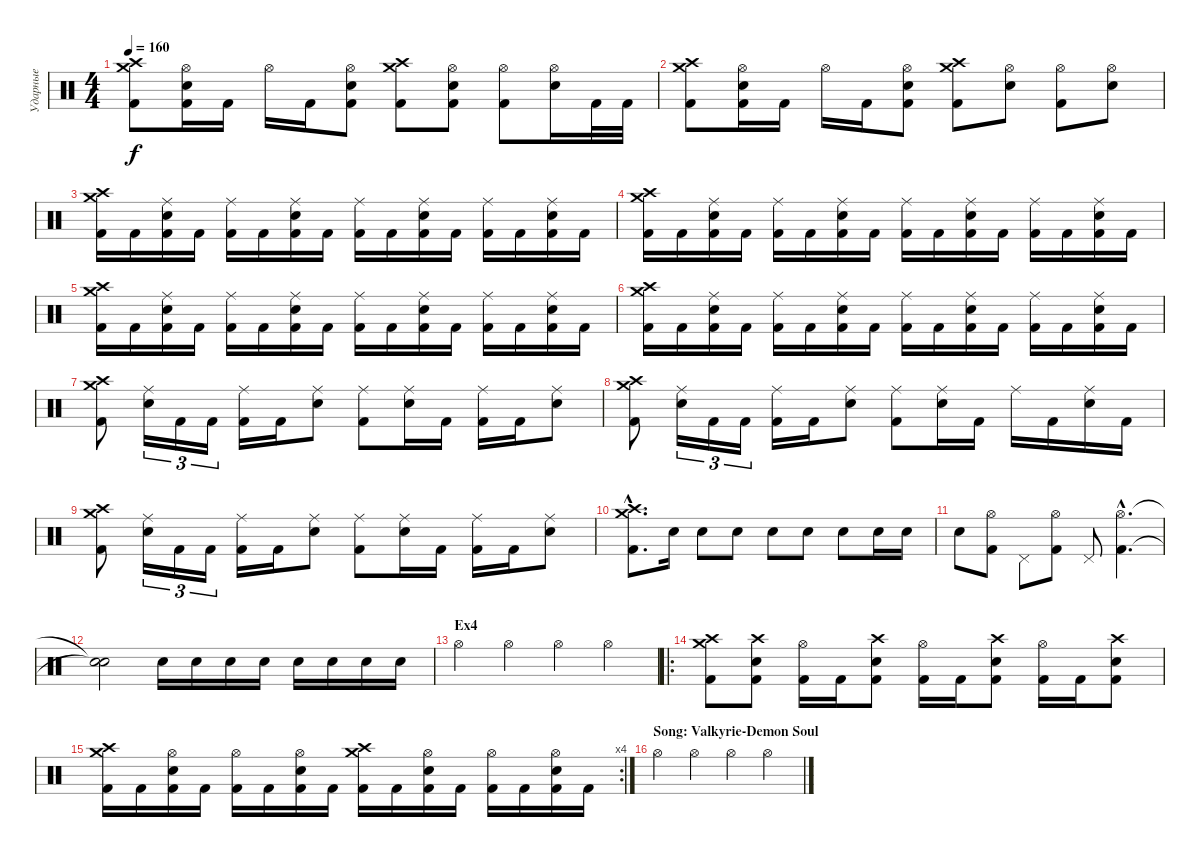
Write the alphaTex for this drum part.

\track ("Ударные" "Ударные") {instrument percussion}
\staff {score}
\articulation defaults
\ts (4 4)
\tempo 160
\clef neutral
\ks c
("Kick (hit) 2" "Crash high (hit)" "Crash medium (hit)").8{dy f} ("Kick (hit) 2" "Electric Snare (hit)" "Hi-Hat (open)").16 "Kick (hit) 2".16 "Hi-Hat (open)".16 "Kick (hit) 2".16 ("Kick (hit) 2" "Electric Snare (hit)" "Hi-Hat (open)").8 ("Kick (hit) 2" "Crash high (hit)" "Crash medium (hit)").8 ("Kick (hit) 2" "Electric Snare (hit)" "Hi-Hat (open)").8 ("Kick (hit) 2" "Hi-Hat (open)").8 ("Electric Snare (hit)" "Hi-Hat (open)").16 "Kick (hit) 2".32 "Kick (hit) 2".32 |
("Kick (hit) 2" "Crash high (hit)" "Crash medium (hit)").8 ("Kick (hit) 2" "Electric Snare (hit)" "Hi-Hat (open)").16 "Kick (hit) 2".16 "Hi-Hat (open)".16 "Kick (hit) 2".16 ("Kick (hit) 2" "Electric Snare (hit)" "Hi-Hat (open)").8 ("Kick (hit) 2" "Crash high (hit)" "Crash medium (hit)").8 ("Electric Snare (hit)" "Hi-Hat (open)").8 ("Kick (hit) 2" "Hi-Hat (open)").8 ("Electric Snare (hit)" "Hi-Hat (open)").8 |
("Kick (hit) 2" "Crash high (hit)" "Crash medium (hit)").16 "Kick (hit) 2".16 ("Kick (hit) 2" "Electric Snare (hit)" "Ride (middle)").16 "Kick (hit) 2".16 ("Kick (hit) 2" "Ride (middle)").16 "Kick (hit) 2".16 ("Kick (hit) 2" "Electric Snare (hit)" "Ride (middle)").16 "Kick (hit) 2".16 ("Kick (hit) 2" "Ride (middle)").16 "Kick (hit) 2".16 ("Kick (hit) 2" "Electric Snare (hit)" "Ride (middle)").16 "Kick (hit) 2".16 ("Kick (hit) 2" "Ride (middle)").16 "Kick (hit) 2".16 ("Kick (hit) 2" "Electric Snare (hit)" "Ride (middle)").16 "Kick (hit) 2".16 |
("Kick (hit) 2" "Crash high (hit)" "Crash medium (hit)").16 "Kick (hit) 2".16 ("Kick (hit) 2" "Electric Snare (hit)" "Ride (middle)").16 "Kick (hit) 2".16 ("Kick (hit) 2" "Ride (middle)").16 "Kick (hit) 2".16 ("Kick (hit) 2" "Electric Snare (hit)" "Ride (middle)").16 "Kick (hit) 2".16 ("Kick (hit) 2" "Ride (middle)").16 "Kick (hit) 2".16 ("Kick (hit) 2" "Electric Snare (hit)" "Ride (middle)").16 "Kick (hit) 2".16 ("Kick (hit) 2" "Ride (middle)").16 "Kick (hit) 2".16 ("Kick (hit) 2" "Electric Snare (hit)" "Ride (middle)").16 "Kick (hit) 2".16 |
("Kick (hit) 2" "Crash high (hit)" "Crash medium (hit)").16 "Kick (hit) 2".16 ("Kick (hit) 2" "Electric Snare (hit)" "Ride (middle)").16 "Kick (hit) 2".16 ("Kick (hit) 2" "Ride (middle)").16 "Kick (hit) 2".16 ("Kick (hit) 2" "Electric Snare (hit)" "Ride (middle)").16 "Kick (hit) 2".16 ("Kick (hit) 2" "Ride (middle)").16 "Kick (hit) 2".16 ("Kick (hit) 2" "Electric Snare (hit)" "Ride (middle)").16 "Kick (hit) 2".16 ("Kick (hit) 2" "Ride (middle)").16 "Kick (hit) 2".16 ("Kick (hit) 2" "Electric Snare (hit)" "Ride (middle)").16 "Kick (hit) 2".16 |
("Kick (hit) 2" "Crash high (hit)" "Crash medium (hit)").16 "Kick (hit) 2".16 ("Kick (hit) 2" "Electric Snare (hit)" "Ride (middle)").16 "Kick (hit) 2".16 ("Kick (hit) 2" "Ride (middle)").16 "Kick (hit) 2".16 ("Kick (hit) 2" "Electric Snare (hit)" "Ride (middle)").16 "Kick (hit) 2".16 ("Kick (hit) 2" "Ride (middle)").16 "Kick (hit) 2".16 ("Kick (hit) 2" "Electric Snare (hit)" "Ride (middle)").16 "Kick (hit) 2".16 ("Kick (hit) 2" "Ride (middle)").16 "Kick (hit) 2".16 ("Kick (hit) 2" "Electric Snare (hit)" "Ride (middle)").16 "Kick (hit) 2".16 |
("Kick (hit) 2" "Crash high (hit)" "Crash medium (hit)").8 ("Electric Snare (hit)" "Ride (middle)").16{tu (3 2)} "Kick (hit) 2".16{tu (3 2)} "Kick (hit) 2".16{tu (3 2)} ("Kick (hit) 2" "Ride (middle)").16 "Kick (hit) 2".16 ("Electric Snare (hit)" "Ride (middle)").8 ("Kick (hit) 2" "Ride (middle)").8 ("Electric Snare (hit)" "Ride (middle)").16 "Kick (hit) 2".16 ("Kick (hit) 2" "Ride (middle)").16 "Kick (hit) 2".16 ("Electric Snare (hit)" "Ride (middle)").8 |
("Kick (hit) 2" "Crash high (hit)" "Crash medium (hit)").8 ("Electric Snare (hit)" "Ride (middle)").16{tu (3 2)} "Kick (hit) 2".16{tu (3 2)} "Kick (hit) 2".16{tu (3 2)} ("Kick (hit) 2" "Ride (middle)").16 "Kick (hit) 2".16 ("Electric Snare (hit)" "Ride (middle)").8 ("Kick (hit) 2" "Ride (middle)").8 ("Electric Snare (hit)" "Ride (middle)").16 "Kick (hit) 2".16 "Ride (middle)".16 "Kick (hit) 2".16 ("Electric Snare (hit)" "Ride (middle)").16 "Kick (hit) 2".16 |
("Kick (hit) 2" "Crash high (hit)" "Crash medium (hit)").8 ("Electric Snare (hit)" "Ride (middle)").16{tu (3 2)} "Kick (hit) 2".16{tu (3 2)} "Kick (hit) 2".16{tu (3 2)} ("Kick (hit) 2" "Ride (middle)").16 "Kick (hit) 2".16 ("Electric Snare (hit)" "Ride (middle)").8 ("Kick (hit) 2" "Ride (middle)").8 ("Electric Snare (hit)" "Ride (middle)").16 "Kick (hit) 2".16 ("Kick (hit) 2" "Ride (middle)").16 "Kick (hit) 2".16 ("Electric Snare (hit)" "Ride (middle)").8 |
("Kick (hit) 2"{hac} "Crash high (hit)"{hac} "Crash medium (hit)"{hac}).8{d} "Electric Snare (hit)".16 "Electric Snare (hit)".8 "Electric Snare (hit)".8 "Electric Snare (hit)".8 "Electric Snare (hit)".8 "Electric Snare (hit)".8 "Electric Snare (hit)".16 "Electric Snare (hit)".16 |
"Electric Snare (hit)".8 ("Kick (hit) 2" "Hi-Hat (open)").8 "Pedal Hi-Hat (hit)".8 ("Kick (hit) 2" "Hi-Hat (open)").8 "Pedal Hi-Hat (hit)".8 ("Kick (hit) 2"{hac} "Hi-Hat (open)"{hac}).4{d} |
("Snare (hit)"{t} "Snare (hit)"{t}).2 "Electric Snare (hit)".16 "Electric Snare (hit)".16 "Electric Snare (hit)".16 "Electric Snare (hit)".16 "Electric Snare (hit)".16 "Electric Snare (hit)".16 "Electric Snare (hit)".16 "Electric Snare (hit)".16 |
\section ("" "Ex4")
"Hi-Hat (open)".4 "Hi-Hat (open)".4 "Hi-Hat (open)".4 "Hi-Hat (open)".4 |
\ro
("Kick (hit) 2" "Crash high (hit)" "Crash medium (hit)").8 ("Kick (hit) 2" "Electric Snare (hit)" "Crash high (hit)").8 ("Kick (hit) 2" "Hi-Hat (open)").16 "Kick (hit) 2".16 ("Kick (hit) 2" "Electric Snare (hit)" "Crash high (hit)").8 ("Kick (hit) 2" "Hi-Hat (open)").16 "Kick (hit) 2".16 ("Kick (hit) 2" "Electric Snare (hit)" "Crash high (hit)").8 ("Kick (hit) 2" "Hi-Hat (open)").16 "Kick (hit) 2".16 ("Kick (hit) 2" "Electric Snare (hit)" "Crash high (hit)").8 |
\rc 4
("Kick (hit) 2" "Crash high (hit)" "Crash medium (hit)").16 "Kick (hit) 2".16 ("Kick (hit) 2" "Electric Snare (hit)" "Hi-Hat (open)").16 "Kick (hit) 2".16 ("Kick (hit) 2" "Hi-Hat (open)").16 "Kick (hit) 2".16 ("Kick (hit) 2" "Electric Snare (hit)" "Hi-Hat (open)").16 "Kick (hit) 2".16 ("Kick (hit) 2" "Crash medium (hit)" "Crash high (hit)").16 "Kick (hit) 2".16 ("Kick (hit) 2" "Electric Snare (hit)" "Hi-Hat (open)").16 "Kick (hit) 2".16 ("Kick (hit) 2" "Hi-Hat (open)").16 "Kick (hit) 2".16 ("Kick (hit) 2" "Electric Snare (hit)" "Hi-Hat (open)").16 "Kick (hit) 2".16 |
\section ("" "Song: Valkyrie-Demon Soul")
"Hi-Hat (open)".4 "Hi-Hat (open)".4 "Hi-Hat (open)".4 "Hi-Hat (open)".4
